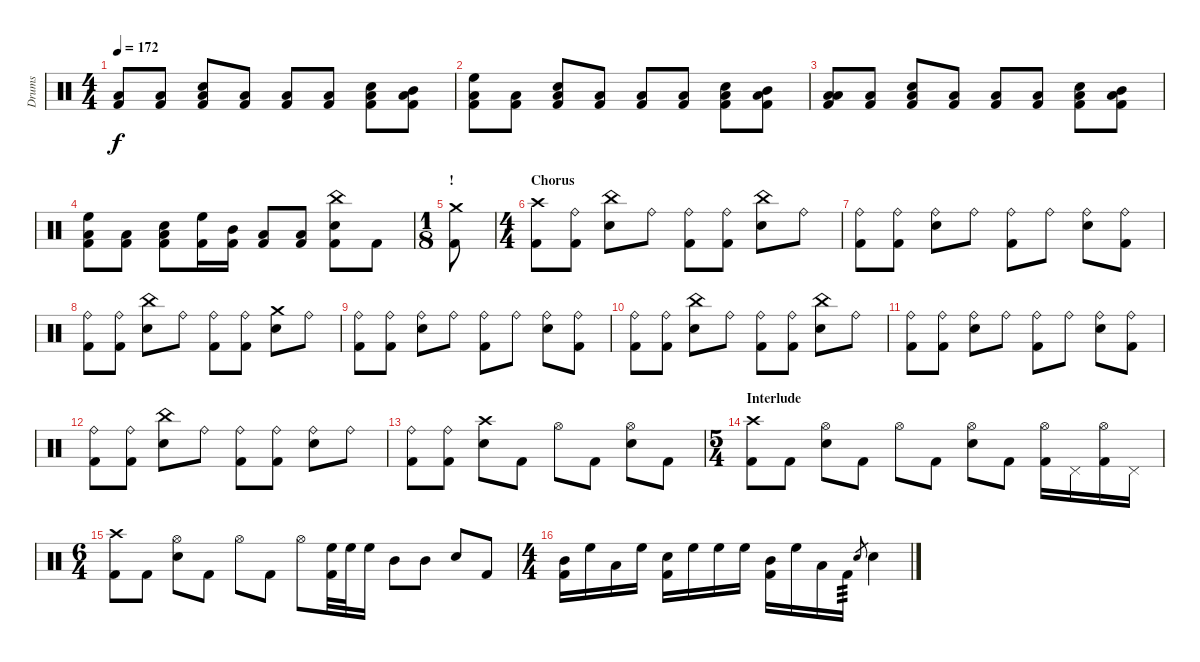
\track ("Drums" "Drums") {instrument percussion}
\staff {score}
\articulation defaults
\ts (4 4)
\tempo 172
\clef neutral
\ks c
("Low Tom (hit)" "Kick (hit) 2").8{dy f} ("Low Tom (hit)" "Kick (hit) 2").8 ("Electric Snare (hit)" "Low Tom (hit)" "Kick (hit) 2").8 ("Low Tom (hit)" "Kick (hit) 2").8 ("Low Tom (hit)" "Kick (hit) 2").8 ("Low Tom (hit)" "Kick (hit) 2").8 ("Electric Snare (hit)" "Low Tom (hit)" "Kick (hit) 2").8 ("Mid Tom (hit)" "Low Tom (hit)" "Kick (hit) 2").8 |
("High Floor Tom (hit)" "Low Tom (hit)" "Kick (hit) 2").8 ("Low Tom (hit)" "Kick (hit) 2").8 ("Electric Snare (hit)" "Low Tom (hit)" "Kick (hit) 2").8 ("Low Tom (hit)" "Kick (hit) 2").8 ("Low Tom (hit)" "Kick (hit) 2").8 ("Low Tom (hit)" "Kick (hit) 2").8 ("Electric Snare (hit)" "Low Tom (hit)" "Kick (hit) 2").8 ("Mid Tom (hit)" "Low Tom (hit)" "Kick (hit) 2").8 |
("Low Tom (hit)" "Low Floor Tom (hit)" "Kick (hit) 2").8 ("Low Tom (hit)" "Kick (hit) 2").8 ("Electric Snare (hit)" "Low Tom (hit)" "Kick (hit) 2").8 ("Low Tom (hit)" "Kick (hit) 2").8 ("Low Tom (hit)" "Kick (hit) 2").8 ("Low Tom (hit)" "Kick (hit) 2").8 ("Electric Snare (hit)" "Low Tom (hit)" "Kick (hit) 2").8 ("Mid Tom (hit)" "Low Tom (hit)" "Kick (hit) 2").8 |
("High Floor Tom (hit)" "Low Tom (hit)" "Kick (hit) 2").8 ("Low Tom (hit)" "Kick (hit) 2").8 ("Electric Snare (hit)" "Low Tom (hit)" "Kick (hit) 2").8 ("High Floor Tom (hit)" "Kick (hit) 2").16 ("Mid Tom (hit)" "Kick (hit) 2").16 ("Low Tom (hit)" "Kick (hit) 2").8 ("Low Tom (hit)" "Kick (hit) 2").8 ("China (hit)" "Electric Snare (hit)" "Kick (hit) 2").8 "Kick (hit) 2".8 |
\ts (1 8)
\section ("" "!")
("Crash medium (hit)" "Kick (hit) 2").8 |
\ts (4 4)
\section ("" "Chorus")
("Crash high (hit)" "Kick (hit) 2").8 ("Ride (bell)" "Kick (hit) 2").8 ("China (hit)" "Electric Snare (hit)").8 "Ride (bell)".8 ("Ride (bell)" "Kick (hit) 2").8 ("Ride (bell)" "Kick (hit) 2").8 ("China (hit)" "Electric Snare (hit)").8 "Ride (bell)".8 |
("Ride (bell)" "Kick (hit) 2").8 ("Ride (bell)" "Kick (hit) 2").8 ("Ride (bell)" "Electric Snare (hit)").8 "Ride (bell)".8 ("Ride (bell)" "Kick (hit) 2").8 "Ride (bell)".8 ("Ride (bell)" "Electric Snare (hit)").8 ("Ride (bell)" "Kick (hit) 2").8 |
("Ride (bell)" "Kick (hit) 2").8 ("Ride (bell)" "Kick (hit) 2").8 ("China (hit)" "Electric Snare (hit)").8 "Ride (bell)".8 ("Ride (bell)" "Kick (hit) 2").8 ("Ride (bell)" "Kick (hit) 2").8 ("Crash medium (hit)" "Electric Snare (hit)").8 "Ride (bell)".8 |
("Ride (bell)" "Kick (hit) 2").8 ("Ride (bell)" "Kick (hit) 2").8 ("Ride (bell)" "Electric Snare (hit)").8 "Ride (bell)".8 ("Ride (bell)" "Kick (hit) 2").8 "Ride (bell)".8 ("Ride (bell)" "Electric Snare (hit)").8 ("Ride (bell)" "Kick (hit) 2").8 |
("Ride (bell)" "Kick (hit) 2").8 ("Ride (bell)" "Kick (hit) 2").8 ("China (hit)" "Electric Snare (hit)").8 "Ride (bell)".8 ("Ride (bell)" "Kick (hit) 2").8 ("Ride (bell)" "Kick (hit) 2").8 ("China (hit)" "Electric Snare (hit)").8 "Ride (bell)".8 |
("Ride (bell)" "Kick (hit) 2").8 ("Ride (bell)" "Kick (hit) 2").8 ("Ride (bell)" "Electric Snare (hit)").8 "Ride (bell)".8 ("Ride (bell)" "Kick (hit) 2").8 "Ride (bell)".8 ("Ride (bell)" "Electric Snare (hit)").8 ("Ride (bell)" "Kick (hit) 2").8 |
("Ride (bell)" "Kick (hit) 2").8 ("Ride (bell)" "Kick (hit) 2").8 ("China (hit)" "Electric Snare (hit)").8 "Ride (bell)".8 ("Ride (bell)" "Kick (hit) 2").8 ("Ride (bell)" "Kick (hit) 2").8 ("Ride (bell)" "Electric Snare (hit)").8 "Ride (bell)".8 |
("Ride (bell)" "Kick (hit) 2").8 ("Ride (bell)" "Kick (hit) 2").8 ("Crash high (hit)" "Electric Snare (hit)").8 "Kick (hit) 2".8 "Hi-Hat (open)".8 "Kick (hit) 2".8 ("Hi-Hat (open)" "Electric Snare (hit)").8 "Kick (hit) 2".8 |
\ts (5 4)
\section ("" "Interlude")
("Crash high (hit)" "Kick (hit) 2").8 "Kick (hit) 2".8 ("Hi-Hat (open)" "Electric Snare (hit)").8 "Kick (hit) 2".8 "Hi-Hat (open)".8 "Kick (hit) 2".8 ("Hi-Hat (open)" "Electric Snare (hit)").8 "Kick (hit) 2".8 ("Hi-Hat (open)" "Kick (hit) 2").16 "Pedal Hi-Hat (hit)".16 ("Hi-Hat (open)" "Kick (hit) 2").16 "Pedal Hi-Hat (hit)".16 |
\ts (6 4)
("Crash high (hit)" "Kick (hit) 2").8 "Kick (hit) 2".8 ("Hi-Hat (open)" "Electric Snare (hit)").8 "Kick (hit) 2".8 "Hi-Hat (open)".8 "Kick (hit) 2".8 "Hi-Hat (open)".8 ("High Floor Tom (hit)" "Kick (hit) 2").32 "High Floor Tom (hit)".32 "High Floor Tom (hit)".16 "Mid Tom (hit)".8 "Mid Tom (hit)".8 "Electric Snare (hit)".8 "Kick (hit) 2".8 |
\ts (4 4)
("Mid Tom (hit)" "Kick (hit) 2").16 "High Floor Tom (hit)".16 "Low Tom (hit)".16 "High Floor Tom (hit)".16 ("Electric Snare (hit)" "Kick (hit) 2").16 "High Floor Tom (hit)".16 "High Floor Tom (hit)".16 "High Floor Tom (hit)".16 ("Mid Tom (hit)" "Kick (hit) 2").16 "High Floor Tom (hit)".16 "Low Tom (hit)".16 "Kick (hit) 2".16{tp 3} "Electric Snare (hit)".8{gr} "Electric Snare (hit)".4
